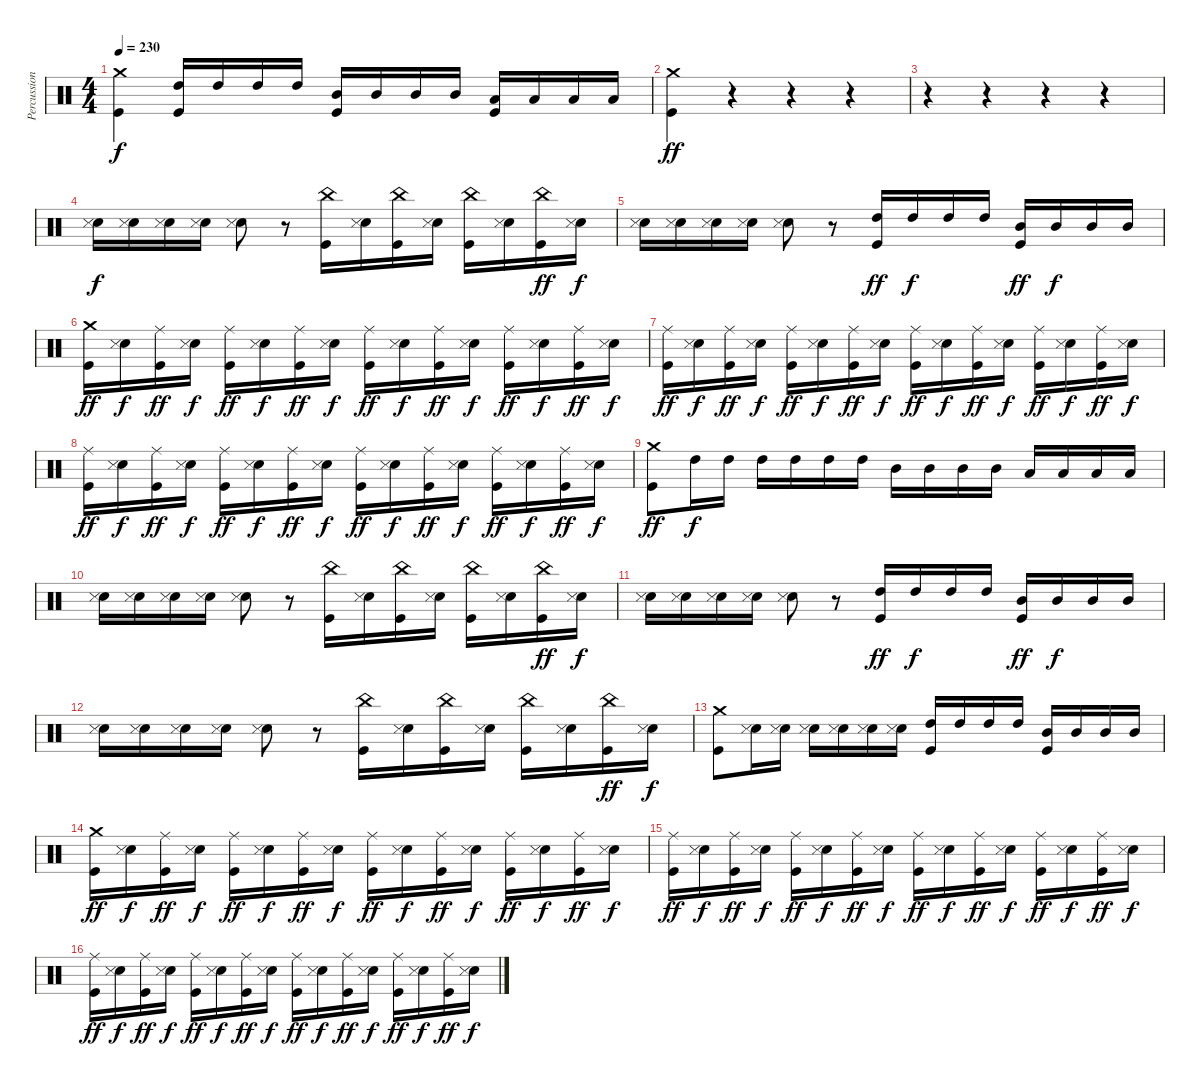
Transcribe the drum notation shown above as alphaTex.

\track ("Percussions" "Percussion") {instrument percussion}
\staff {score}
\articulation defaults
\ts (4 4)
\tempo 230
\clef neutral
\ks c
("Crash medium (hit)" "Kick (hit)").4{dy f} ("High Tom (hit)" "Kick (hit)").16 "High Tom (hit)".16 "High Tom (hit)".16 "High Tom (hit)".16 ("Mid Tom (hit)" "Kick (hit)").16 "Mid Tom (hit)".16 "Mid Tom (hit)".16 "Mid Tom (hit)".16 ("Low Tom (hit)" "Kick (hit)").16 "Low Tom (hit)".16 "Low Tom (hit)".16 "Low Tom (hit)".16 |
("Crash medium (hit)" "Kick (hit)").4{dy ff} r.4 r.4 r.4 |
r.4 r.4 r.4 r.4 |
("Electric Snare (hit)" "Snare (side stick) 3").16{dy f} ("Electric Snare (hit)" "Snare (side stick) 3").16 ("Electric Snare (hit)" "Snare (side stick) 3").16 ("Electric Snare (hit)" "Snare (side stick) 3").16 ("Electric Snare (hit)" "Snare (side stick) 3").8 r.8 ("China (hit)" "Kick (hit)").16 ("Electric Snare (hit)" "Snare (side stick) 3").16 ("China (hit)" "Kick (hit)").16 ("Electric Snare (hit)" "Snare (side stick) 3").16 ("China (hit)" "Kick (hit)").16 ("Electric Snare (hit)" "Snare (side stick) 3").16 ("China (hit)" "Kick (hit)").16{dy ff} ("Electric Snare (hit)" "Snare (side stick) 3").16{dy f} |
("Electric Snare (hit)" "Snare (side stick) 3").16 ("Electric Snare (hit)" "Snare (side stick) 3").16 ("Electric Snare (hit)" "Snare (side stick) 3").16 ("Electric Snare (hit)" "Snare (side stick) 3").16 ("Electric Snare (hit)" "Snare (side stick) 3").8 r.8 ("High Tom (hit)" "Kick (hit)").16{dy ff} "High Tom (hit)".16{dy f} "High Tom (hit)".16 "High Tom (hit)".16 ("Mid Tom (hit)" "Kick (hit)").16{dy ff} "Mid Tom (hit)".16{dy f} "Mid Tom (hit)".16 "Mid Tom (hit)".16 |
("Crash medium (hit)" "Kick (hit)").16{dy ff} ("Electric Snare (hit)" "Snare (side stick) 3").16{dy f} ("Ride (middle)" "Kick (hit)").16{dy ff} ("Electric Snare (hit)" "Snare (side stick) 3").16{dy f} ("Ride (middle)" "Kick (hit)").16{dy ff} ("Electric Snare (hit)" "Snare (side stick) 3").16{dy f} ("Ride (middle)" "Kick (hit)").16{dy ff} ("Electric Snare (hit)" "Snare (side stick) 3").16{dy f} ("Ride (middle)" "Kick (hit)").16{dy ff} ("Electric Snare (hit)" "Snare (side stick) 3").16{dy f} ("Ride (middle)" "Kick (hit)").16{dy ff} ("Electric Snare (hit)" "Snare (side stick) 3").16{dy f} ("Ride (middle)" "Kick (hit)").16{dy ff} ("Electric Snare (hit)" "Snare (side stick) 3").16{dy f} ("Ride (middle)" "Kick (hit)").16{dy ff} ("Electric Snare (hit)" "Snare (side stick) 3").16{dy f} |
("Ride (middle)" "Kick (hit)").16{dy ff} ("Electric Snare (hit)" "Snare (side stick) 3").16{dy f} ("Ride (middle)" "Kick (hit)").16{dy ff} ("Electric Snare (hit)" "Snare (side stick) 3").16{dy f} ("Ride (middle)" "Kick (hit)").16{dy ff} ("Electric Snare (hit)" "Snare (side stick) 3").16{dy f} ("Ride (middle)" "Kick (hit)").16{dy ff} ("Electric Snare (hit)" "Snare (side stick) 3").16{dy f} ("Ride (middle)" "Kick (hit)").16{dy ff} ("Electric Snare (hit)" "Snare (side stick) 3").16{dy f} ("Ride (middle)" "Kick (hit)").16{dy ff} ("Electric Snare (hit)" "Snare (side stick) 3").16{dy f} ("Ride (middle)" "Kick (hit)").16{dy ff} ("Electric Snare (hit)" "Snare (side stick) 3").16{dy f} ("Ride (middle)" "Kick (hit)").16{dy ff} ("Electric Snare (hit)" "Snare (side stick) 3").16{dy f} |
("Ride (middle)" "Kick (hit)").16{dy ff} ("Electric Snare (hit)" "Snare (side stick) 3").16{dy f} ("Ride (middle)" "Kick (hit)").16{dy ff} ("Electric Snare (hit)" "Snare (side stick) 3").16{dy f} ("Ride (middle)" "Kick (hit)").16{dy ff} ("Electric Snare (hit)" "Snare (side stick) 3").16{dy f} ("Ride (middle)" "Kick (hit)").16{dy ff} ("Electric Snare (hit)" "Snare (side stick) 3").16{dy f} ("Ride (middle)" "Kick (hit)").16{dy ff} ("Electric Snare (hit)" "Snare (side stick) 3").16{dy f} ("Ride (middle)" "Kick (hit)").16{dy ff} ("Electric Snare (hit)" "Snare (side stick) 3").16{dy f} ("Ride (middle)" "Kick (hit)").16{dy ff} ("Electric Snare (hit)" "Snare (side stick) 3").16{dy f} ("Ride (middle)" "Kick (hit)").16{dy ff} ("Electric Snare (hit)" "Snare (side stick) 3").16{dy f} |
("Crash medium (hit)" "Kick (hit)").8{dy ff} "High Tom (hit)".16{dy f} "High Tom (hit)".16 "High Tom (hit)".16 "High Tom (hit)".16 "High Tom (hit)".16 "High Tom (hit)".16 "Mid Tom (hit)".16 "Mid Tom (hit)".16 "Mid Tom (hit)".16 "Mid Tom (hit)".16 "Low Tom (hit)".16 "Low Tom (hit)".16 "Low Tom (hit)".16 "Low Tom (hit)".16 |
("Electric Snare (hit)" "Snare (side stick) 3").16 ("Electric Snare (hit)" "Snare (side stick) 3").16 ("Electric Snare (hit)" "Snare (side stick) 3").16 ("Electric Snare (hit)" "Snare (side stick) 3").16 ("Electric Snare (hit)" "Snare (side stick) 3").8 r.8 ("China (hit)" "Kick (hit)").16 ("Electric Snare (hit)" "Snare (side stick) 3").16 ("China (hit)" "Kick (hit)").16 ("Electric Snare (hit)" "Snare (side stick) 3").16 ("China (hit)" "Kick (hit)").16 ("Electric Snare (hit)" "Snare (side stick) 3").16 ("China (hit)" "Kick (hit)").16{dy ff} ("Electric Snare (hit)" "Snare (side stick) 3").16{dy f} |
("Electric Snare (hit)" "Snare (side stick) 3").16 ("Electric Snare (hit)" "Snare (side stick) 3").16 ("Electric Snare (hit)" "Snare (side stick) 3").16 ("Electric Snare (hit)" "Snare (side stick) 3").16 ("Electric Snare (hit)" "Snare (side stick) 3").8 r.8 ("High Tom (hit)" "Kick (hit)").16{dy ff} "High Tom (hit)".16{dy f} "High Tom (hit)".16 "High Tom (hit)".16 ("Mid Tom (hit)" "Kick (hit)").16{dy ff} "Mid Tom (hit)".16{dy f} "Mid Tom (hit)".16 "Mid Tom (hit)".16 |
("Electric Snare (hit)" "Snare (side stick) 3").16 ("Electric Snare (hit)" "Snare (side stick) 3").16 ("Electric Snare (hit)" "Snare (side stick) 3").16 ("Electric Snare (hit)" "Snare (side stick) 3").16 ("Electric Snare (hit)" "Snare (side stick) 3").8 r.8 ("China (hit)" "Kick (hit)").16 ("Electric Snare (hit)" "Snare (side stick) 3").16 ("China (hit)" "Kick (hit)").16 ("Electric Snare (hit)" "Snare (side stick) 3").16 ("China (hit)" "Kick (hit)").16 ("Electric Snare (hit)" "Snare (side stick) 3").16 ("China (hit)" "Kick (hit)").16{dy ff} ("Electric Snare (hit)" "Snare (side stick) 3").16{dy f} |
("Crash medium (hit)" "Kick (hit)").8 ("Electric Snare (hit)" "Snare (side stick) 3").16 ("Electric Snare (hit)" "Snare (side stick) 3").16 ("Electric Snare (hit)" "Snare (side stick) 3").16 ("Electric Snare (hit)" "Snare (side stick) 3").16 ("Electric Snare (hit)" "Snare (side stick) 3").16 ("Electric Snare (hit)" "Snare (side stick) 3").16 ("High Tom (hit)" "Kick (hit)").16 "High Tom (hit)".16 "High Tom (hit)".16 "High Tom (hit)".16 ("Mid Tom (hit)" "Kick (hit)").16 "Mid Tom (hit)".16 "Mid Tom (hit)".16 "Mid Tom (hit)".16 |
("Crash medium (hit)" "Kick (hit)").16{dy ff} ("Electric Snare (hit)" "Snare (side stick) 3").16{dy f} ("Ride (middle)" "Kick (hit)").16{dy ff} ("Electric Snare (hit)" "Snare (side stick) 3").16{dy f} ("Ride (middle)" "Kick (hit)").16{dy ff} ("Electric Snare (hit)" "Snare (side stick) 3").16{dy f} ("Ride (middle)" "Kick (hit)").16{dy ff} ("Electric Snare (hit)" "Snare (side stick) 3").16{dy f} ("Ride (middle)" "Kick (hit)").16{dy ff} ("Electric Snare (hit)" "Snare (side stick) 3").16{dy f} ("Ride (middle)" "Kick (hit)").16{dy ff} ("Electric Snare (hit)" "Snare (side stick) 3").16{dy f} ("Ride (middle)" "Kick (hit)").16{dy ff} ("Electric Snare (hit)" "Snare (side stick) 3").16{dy f} ("Ride (middle)" "Kick (hit)").16{dy ff} ("Electric Snare (hit)" "Snare (side stick) 3").16{dy f} |
("Ride (middle)" "Kick (hit)").16{dy ff} ("Electric Snare (hit)" "Snare (side stick) 3").16{dy f} ("Ride (middle)" "Kick (hit)").16{dy ff} ("Electric Snare (hit)" "Snare (side stick) 3").16{dy f} ("Ride (middle)" "Kick (hit)").16{dy ff} ("Electric Snare (hit)" "Snare (side stick) 3").16{dy f} ("Ride (middle)" "Kick (hit)").16{dy ff} ("Electric Snare (hit)" "Snare (side stick) 3").16{dy f} ("Ride (middle)" "Kick (hit)").16{dy ff} ("Electric Snare (hit)" "Snare (side stick) 3").16{dy f} ("Ride (middle)" "Kick (hit)").16{dy ff} ("Electric Snare (hit)" "Snare (side stick) 3").16{dy f} ("Ride (middle)" "Kick (hit)").16{dy ff} ("Electric Snare (hit)" "Snare (side stick) 3").16{dy f} ("Ride (middle)" "Kick (hit)").16{dy ff} ("Electric Snare (hit)" "Snare (side stick) 3").16{dy f} |
("Ride (middle)" "Kick (hit)").16{dy ff} ("Electric Snare (hit)" "Snare (side stick) 3").16{dy f} ("Ride (middle)" "Kick (hit)").16{dy ff} ("Electric Snare (hit)" "Snare (side stick) 3").16{dy f} ("Ride (middle)" "Kick (hit)").16{dy ff} ("Electric Snare (hit)" "Snare (side stick) 3").16{dy f} ("Ride (middle)" "Kick (hit)").16{dy ff} ("Electric Snare (hit)" "Snare (side stick) 3").16{dy f} ("Ride (middle)" "Kick (hit)").16{dy ff} ("Electric Snare (hit)" "Snare (side stick) 3").16{dy f} ("Ride (middle)" "Kick (hit)").16{dy ff} ("Electric Snare (hit)" "Snare (side stick) 3").16{dy f} ("Ride (middle)" "Kick (hit)").16{dy ff} ("Electric Snare (hit)" "Snare (side stick) 3").16{dy f} ("Ride (middle)" "Kick (hit)").16{dy ff} ("Electric Snare (hit)" "Snare (side stick) 3").16{dy f}
